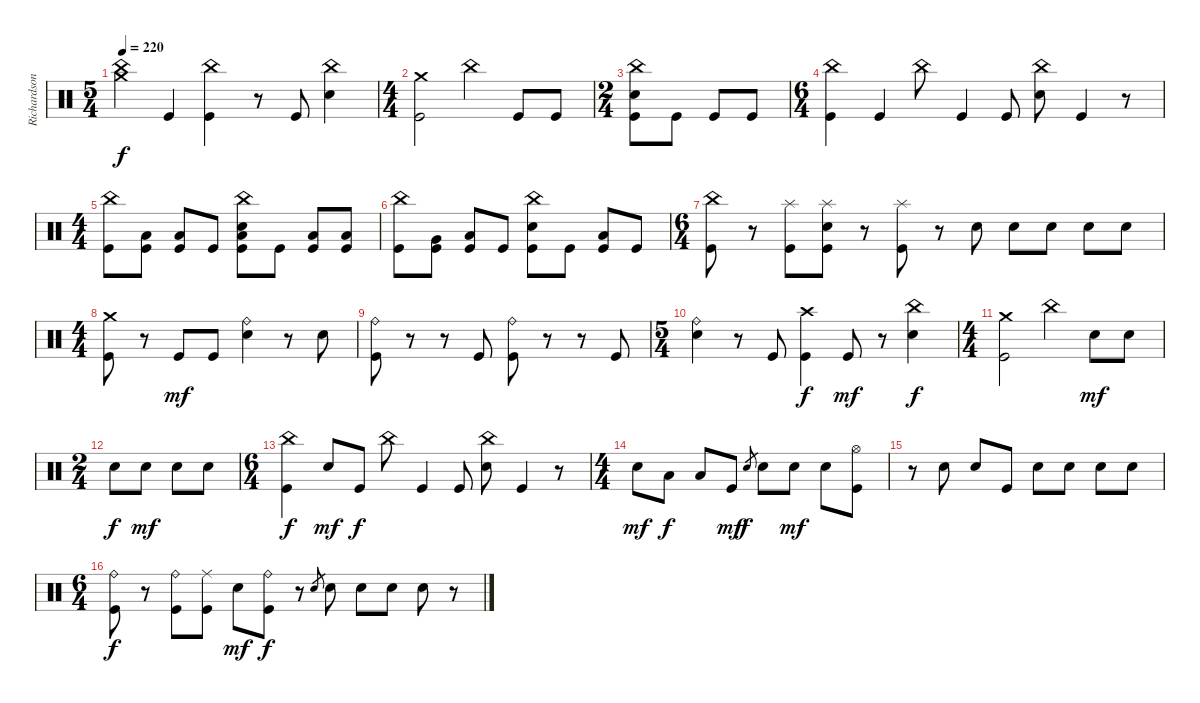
\track ("Richardson" "Richardson") {instrument percussion}
\staff {score}
\articulation defaults
\ts (5 4)
\tempo 220
\clef neutral
\ks c
("China (hit)" "Crash medium (hit)").4{dy f} "Kick (hit)".4 ("China (hit)" "Kick (hit)").4 r.8 "Kick (hit)".8 ("China (hit)" "Electric Snare (hit)").4 |
\ts (4 4)
("Crash medium (hit)" "Kick (hit)").2 "China (hit)".4 "Kick (hit)".8 "Kick (hit)".8 |
\ts (2 4)
("China (hit)" "Electric Snare (hit)" "Kick (hit)").8 "Kick (hit)".8 "Kick (hit)".8 "Kick (hit)".8 |
\ts (6 4)
("China (hit)" "Kick (hit)").4 "Kick (hit)".4 "China (hit)".8 "Kick (hit)".4 "Kick (hit)".8 ("China (hit)" "Electric Snare (hit)").8 "Kick (hit)".4 r.8 |
\ts (4 4)
("China (hit)" "Kick (hit)").8 ("Low Tom (hit)" "Kick (hit)").8 ("Low Floor Tom (hit)" "Kick (hit)").8 "Kick (hit)".8 ("China (hit)" "Electric Snare (hit)" "Low Floor Tom (hit)" "Kick (hit)").8 "Kick (hit)".8 ("Low Floor Tom (hit)" "Kick (hit)").8 ("Low Tom (hit)" "Kick (hit)").8 |
("China (hit)" "Kick (hit)").8 ("Very Low Tom (hit)" "Kick (hit)").8 ("Low Floor Tom (hit)" "Kick (hit)").8 "Kick (hit)".8 ("China (hit)" "Electric Snare (hit)" "Kick (hit)").8 "Kick (hit)".8 ("Low Floor Tom (hit)" "Kick (hit)").8 "Kick (hit)".8 |
\ts (6 4)
("China (hit)" "Kick (hit)").8 r.8 ("Splash (hit)" "Kick (hit)").8 ("Splash (hit)" "Electric Snare (hit)" "Kick (hit)").8 r.8 ("Splash (hit)" "Kick (hit)").8 r.8 "Electric Snare (hit)".8 "Electric Snare (hit)".8 "Electric Snare (hit)".8 "Electric Snare (hit)".8 "Electric Snare (hit)".8 |
\ts (4 4)
("Crash medium (hit)" "Kick (hit)").8 r.8 "Kick (hit)".8{dy mf} "Kick (hit)".8 ("Ride (bell)" "Electric Snare (hit)").4 r.8 "Electric Snare (hit)".8 |
("Ride (bell)" "Kick (hit)").8 r.8 r.8 "Kick (hit)".8 ("Ride (bell)" "Kick (hit)").8 r.8 r.8 "Kick (hit)".8 |
\ts (5 4)
("Ride (bell)" "Electric Snare (hit)").4 r.8 "Kick (hit)".8 ("Crash high (hit)" "Kick (hit)").4{dy f} "Kick (hit)".8{dy mf} r.8 ("China (hit)" "Electric Snare (hit)").4{dy f} |
\ts (4 4)
("Crash medium (hit)" "Kick (hit)").2 "China (hit)".4 "Electric Snare (hit)".8{dy mf} "Electric Snare (hit)".8 |
\ts (2 4)
"Electric Snare (hit)".8{dy f} "Electric Snare (hit)".8{dy mf} "Electric Snare (hit)".8 "Electric Snare (hit)".8 |
\ts (6 4)
("China (hit)" "Kick (hit)").4{dy f} "Electric Snare (hit)".8{dy mf} "Kick (hit)".8{dy f} "China (hit)".8 "Kick (hit)".4 "Kick (hit)".8 ("China (hit)" "Electric Snare (hit)").8 "Kick (hit)".4 r.8 |
\ts (4 4)
"Electric Snare (hit)".8{dy mf} "Low Tom (hit)".8{dy f} "Low Floor Tom (hit)".8 "Kick (hit)".8{dy mf} "Electric Snare (hit)".8{gr dy f} "Electric Snare (hit)".8 "Electric Snare (hit)".8{dy mf} "Electric Snare (hit)".8 ("Hi-Hat (open)" "Kick (hit)").8 |
r.8 "Electric Snare (hit)".8 "Electric Snare (hit)".8 "Kick (hit)".8 "Electric Snare (hit)".8 "Electric Snare (hit)".8 "Electric Snare (hit)".8 "Electric Snare (hit)".8 |
\ts (6 4)
("Ride (bell)" "Kick (hit)").8{dy f} r.8 ("Ride (bell)" "Kick (hit)").8 ("Ride (middle)" "Kick (hit)").8 "Electric Snare (hit)".8{dy mf} ("Ride (bell)" "Kick (hit)").8{dy f} r.8 "Electric Snare (hit)".8{gr} "Electric Snare (hit)".8 "Electric Snare (hit)".8 "Electric Snare (hit)".8 "Electric Snare (hit)".8 r.8
